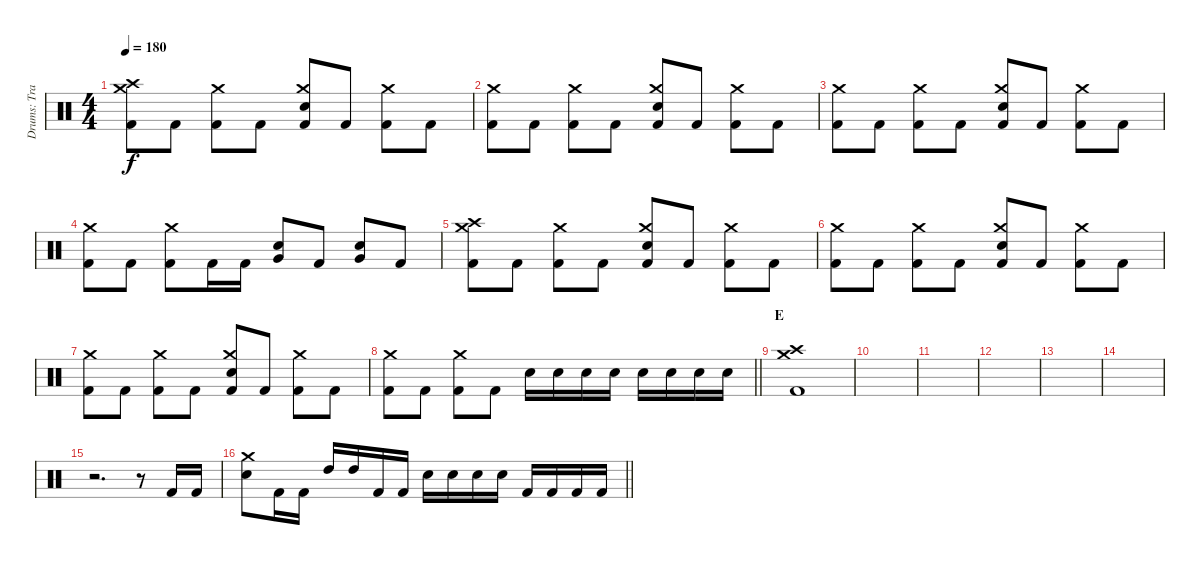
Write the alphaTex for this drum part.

\track ("Drums: Travis Clarke" "Drums: Tra") {instrument percussion}
\staff {score}
\articulation defaults
\ts (4 4)
\tempo 180
\clef neutral
\ks c
("Kick (hit) 2" "Crash high (hit)" "Crash medium (hit)").8{dy f} "Kick (hit) 2".8 ("Kick (hit) 2" "Crash medium (hit)").8 "Kick (hit) 2".8 ("Kick (hit) 2" "Snare (hit) 2" "Crash medium (hit)").8 "Kick (hit) 2".8 ("Kick (hit) 2" "Crash medium (hit)").8 "Kick (hit) 2".8 |
("Kick (hit) 2" "Crash medium (hit)").8 "Kick (hit) 2".8 ("Kick (hit) 2" "Crash medium (hit)").8 "Kick (hit) 2".8 ("Kick (hit) 2" "Snare (hit) 2" "Crash medium (hit)").8 "Kick (hit) 2".8 ("Kick (hit) 2" "Crash medium (hit)").8 "Kick (hit) 2".8 |
("Kick (hit) 2" "Crash medium (hit)").8 "Kick (hit) 2".8 ("Kick (hit) 2" "Crash medium (hit)").8 "Kick (hit) 2".8 ("Kick (hit) 2" "Snare (hit) 2" "Crash medium (hit)").8 "Kick (hit) 2".8 ("Kick (hit) 2" "Crash medium (hit)").8 "Kick (hit) 2".8 |
("Kick (hit) 2" "Crash medium (hit)").8 "Kick (hit) 2".8 ("Kick (hit) 2" "Crash medium (hit)").8 "Kick (hit) 2".16 "Kick (hit) 2".16 ("Snare (hit) 2" "Very Low Tom (hit)").8 "Kick (hit) 2".8 ("Snare (hit) 2" "Very Low Tom (hit)").8 "Kick (hit) 2".8 |
("Kick (hit) 2" "Crash high (hit)" "Crash medium (hit)").8 "Kick (hit) 2".8 ("Kick (hit) 2" "Crash medium (hit)").8 "Kick (hit) 2".8 ("Kick (hit) 2" "Snare (hit) 2" "Crash medium (hit)").8 "Kick (hit) 2".8 ("Kick (hit) 2" "Crash medium (hit)").8 "Kick (hit) 2".8 |
("Kick (hit) 2" "Crash medium (hit)").8 "Kick (hit) 2".8 ("Kick (hit) 2" "Crash medium (hit)").8 "Kick (hit) 2".8 ("Kick (hit) 2" "Snare (hit) 2" "Crash medium (hit)").8 "Kick (hit) 2".8 ("Kick (hit) 2" "Crash medium (hit)").8 "Kick (hit) 2".8 |
("Kick (hit) 2" "Crash medium (hit)").8 "Kick (hit) 2".8 ("Kick (hit) 2" "Crash medium (hit)").8 "Kick (hit) 2".8 ("Kick (hit) 2" "Snare (hit) 2" "Crash medium (hit)").8 "Kick (hit) 2".8 ("Kick (hit) 2" "Crash medium (hit)").8 "Kick (hit) 2".8 |
\barLineRight lightlight
("Kick (hit) 2" "Crash medium (hit)").8 "Kick (hit) 2".8 ("Kick (hit) 2" "Crash medium (hit)").8 "Kick (hit) 2".8 "Snare (hit) 2".16 "Snare (hit) 2".16 "Snare (hit) 2".16 "Snare (hit) 2".16 "Snare (hit) 2".16 "Snare (hit) 2".16 "Snare (hit) 2".16 "Snare (hit) 2".16 |
\section ("" "E")
("Kick (hit) 2" "Crash high (hit)" "Crash medium (hit)").1 |
|
|
|
|
|
r.2{d} r.8 "Kick (hit) 2".16 "Kick (hit) 2".16 |
\barLineRight lightlight
("Snare (hit) 2" "Crash medium (hit)").8 "Kick (hit) 2".16 "Kick (hit) 2".16 "High Tom (hit)".16 "High Tom (hit)".16 "Kick (hit) 2".16 "Kick (hit) 2".16 "Snare (hit) 2".16 "Snare (hit) 2".16 "Snare (hit) 2".16 "Snare (hit) 2".16 "Kick (hit) 2".16 "Kick (hit) 2".16 "Kick (hit) 2".16 "Kick (hit) 2".16
